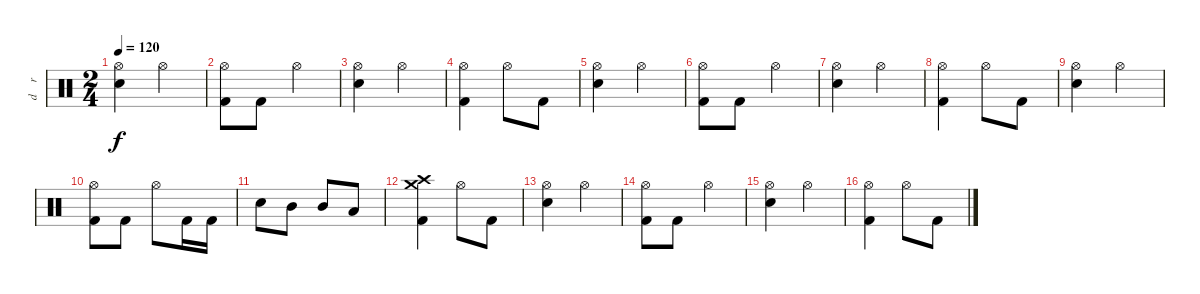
\track ("d    r    u  m  s" "d    r    ") {instrument percussion}
\staff {score}
\articulation defaults
\ts (2 4)
\tempo 120
\clef neutral
\ks c
("Hi-Hat (open)" "Snare (hit) 2").4{dy f} "Hi-Hat (open)".4 |
("Hi-Hat (open)" "Kick (hit) 2").8 "Kick (hit) 2".8 "Hi-Hat (open)".4 |
("Hi-Hat (open)" "Snare (hit) 2").4 "Hi-Hat (open)".4 |
("Hi-Hat (open)" "Kick (hit) 2").4 "Hi-Hat (open)".8 "Kick (hit) 2".8 |
("Hi-Hat (open)" "Snare (hit) 2").4 "Hi-Hat (open)".4 |
("Hi-Hat (open)" "Kick (hit) 2").8 "Kick (hit) 2".8 "Hi-Hat (open)".4 |
("Hi-Hat (open)" "Snare (hit) 2").4 "Hi-Hat (open)".4 |
("Hi-Hat (open)" "Kick (hit) 2").4 "Hi-Hat (open)".8 "Kick (hit) 2".8 |
("Hi-Hat (open)" "Snare (hit) 2").4 "Hi-Hat (open)".4 |
("Hi-Hat (open)" "Kick (hit) 2").8 "Kick (hit) 2".8 "Hi-Hat (open)".8 "Kick (hit) 2".16 "Kick (hit) 2".16 |
"Snare (hit) 2".8 "Mid Tom (hit)".8 "Mid Tom (hit)".8 "Low Tom (hit)".8 |
("Crash high (hit)" "Crash medium (hit)" "Kick (hit) 2").4 "Hi-Hat (open)".8 "Kick (hit) 2".8 |
("Hi-Hat (open)" "Snare (hit) 2").4 "Hi-Hat (open)".4 |
("Hi-Hat (open)" "Kick (hit) 2").8 "Kick (hit) 2".8 "Hi-Hat (open)".4 |
("Hi-Hat (open)" "Snare (hit) 2").4 "Hi-Hat (open)".4 |
("Hi-Hat (open)" "Kick (hit) 2").4 "Hi-Hat (open)".8 "Kick (hit) 2".8
